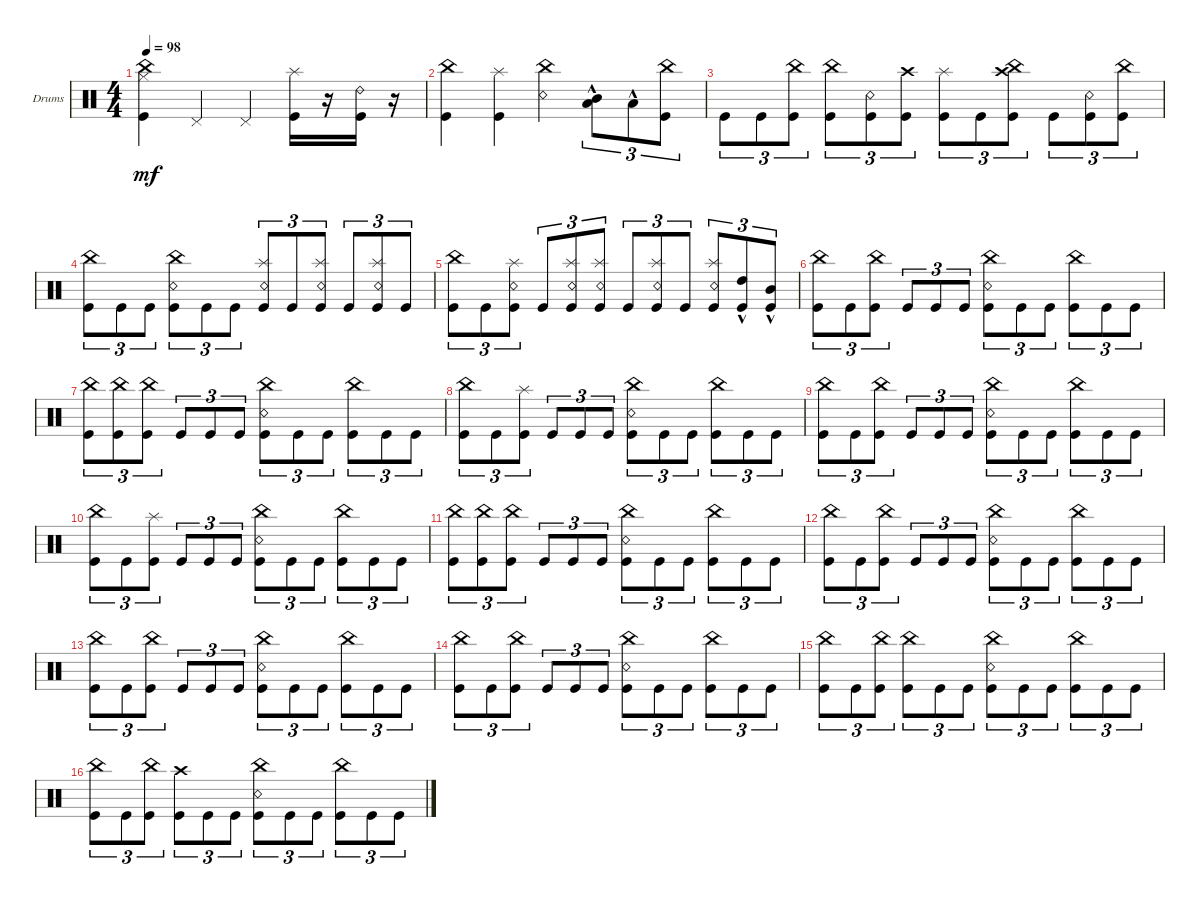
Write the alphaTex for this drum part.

\defaultSystemsLayout 4
\bracketExtendMode groupsimilarinstruments
\firstSystemTrackNameOrientation horizontal
\otherSystemsTrackNameOrientation horizontal
\track ("Drumkit" "Drums") {instrument percussion}
\staff {score}
\articulation defaults
\ts (4 4)
\tempo 98
\clef neutral
\scale
0.333333
\ks c
("China (hit)" "Kick (hit)" "Hi-Hat (closed)").4{dy mf} "Pedal Hi-Hat (hit)".4 "Pedal Hi-Hat (hit)".4 ("Splash (hit)" "Kick (hit)").16 r.16 ("Kick (hit)" "Ride (bell) 2").16 r.16 |
\scale
0.333333 ("Kick (hit)" "China (hit)").4 ("Kick (hit)" "Splash (hit)").4 ("Snare (rim shot)" "China (hit)").4 ("Mid Tom (hit)" "Low Tom (hit)"{hac}).8{tu (3 2)} "Low Tom (hit)"{hac}.8{tu (3 2)} ("Kick (hit)" "China (hit)").8{tu (3 2)} |
\scale
0.333333 "Kick (hit)".8{tu (3 2)} "Kick (hit)".8{tu (3 2)} ("Kick (hit)" "China (hit)").8{tu (3 2)} ("Kick (hit)" "China (hit)").8{tu (3 2)} ("Kick (hit)" "Snare (rim shot)").8{tu (3 2)} ("Kick (hit)" "Crash high (hit)").8{tu (3 2)} ("Kick (hit)" "Splash (hit)").8{tu (3 2)} "Kick (hit)".8{tu (3 2)} ("Kick (hit)" "China (hit)" "Crash high (hit)").8{tu (3 2)} "Kick (hit)".8{tu (3 2)} ("Kick (hit)" "Snare (rim shot)").8{tu (3 2)} ("Kick (hit)" "China (hit)").8{tu (3 2)} |
\scale
0.333333 ("Kick (hit)" "China (hit)").8{tu (3 2)} "Kick (hit)".8{tu (3 2)} "Kick (hit)".8{tu (3 2)} ("Kick (hit)" "China (hit)" "Snare (rim shot)").8{tu (3 2)} "Kick (hit)".8{tu (3 2)} "Kick (hit)".8{tu (3 2)} ("Kick (hit)" "Snare (rim shot)" "Splash (hit)").8{tu (3 2)} "Kick (hit)".8{tu (3 2)} ("Kick (hit)" "Snare (rim shot)" "Splash (hit)").8{tu (3 2)} "Kick (hit)".8{tu (3 2)} ("Kick (hit)" "Snare (rim shot)" "Splash (hit)").8{tu (3 2)} "Kick (hit)".8{tu (3 2)} |
\scale
0.333333 ("Kick (hit)" "China (hit)").8{tu (3 2)} "Kick (hit)".8{tu (3 2)} ("Kick (hit)" "Snare (rim shot)" "Splash (hit)").8{tu (3 2)} "Kick (hit)".8{tu (3 2)} ("Kick (hit)" "Snare (rim shot)" "Splash (hit)").8{tu (3 2)} ("Kick (hit)" "Snare (rim shot)" "Splash (hit)").8{tu (3 2)} "Kick (hit)".8{tu (3 2)} ("Kick (hit)" "Snare (rim shot)" "Splash (hit)").8{tu (3 2)} "Kick (hit)".8{tu (3 2)} ("Kick (hit)" "Snare (rim shot)" "Splash (hit)").8{tu (3 2)} ("Kick (hit)"{hac} "High Tom (hit)"{hac}).8{tu (3 2)} ("Kick (hit)"{hac} "Mid Tom (hit)"{hac}).8{tu (3 2)} |
\scale
0.333333 ("Kick (hit)" "China (hit)").8{tu (3 2)} "Kick (hit)".8{tu (3 2)} ("Kick (hit)" "China (hit)").8{tu (3 2)} "Kick (hit)".8{tu (3 2)} "Kick (hit)".8{tu (3 2)} "Kick (hit)".8{tu (3 2)} ("Snare (rim shot)" "Kick (hit)" "China (hit)").8{tu (3 2)} "Kick (hit)".8{tu (3 2)} "Kick (hit)".8{tu (3 2)} ("Kick (hit)" "China (hit)").8{tu (3 2)} "Kick (hit)".8{tu (3 2)} "Kick (hit)".8{tu (3 2)} |
\scale
0.333333 ("Kick (hit)" "China (hit)").8{tu (3 2)} ("Kick (hit)" "China (hit)").8{tu (3 2)} ("Kick (hit)" "China (hit)").8{tu (3 2)} "Kick (hit)".8{tu (3 2)} "Kick (hit)".8{tu (3 2)} "Kick (hit)".8{tu (3 2)} ("Snare (rim shot)" "Kick (hit)" "China (hit)").8{tu (3 2)} "Kick (hit)".8{tu (3 2)} "Kick (hit)".8{tu (3 2)} ("Kick (hit)" "China (hit)").8{tu (3 2)} "Kick (hit)".8{tu (3 2)} "Kick (hit)".8{tu (3 2)} |
\scale
0.333333 ("Kick (hit)" "China (hit)").8{tu (3 2)} "Kick (hit)".8{tu (3 2)} ("Kick (hit)" "Splash (hit)").8{tu (3 2)} "Kick (hit)".8{tu (3 2)} "Kick (hit)".8{tu (3 2)} "Kick (hit)".8{tu (3 2)} ("Snare (rim shot)" "Kick (hit)" "China (hit)").8{tu (3 2)} "Kick (hit)".8{tu (3 2)} "Kick (hit)".8{tu (3 2)} ("Kick (hit)" "China (hit)").8{tu (3 2)} "Kick (hit)".8{tu (3 2)} "Kick (hit)".8{tu (3 2)} |
\scale
0.333333 ("Kick (hit)" "China (hit)").8{tu (3 2)} "Kick (hit)".8{tu (3 2)} ("Kick (hit)" "China (hit)").8{tu (3 2)} "Kick (hit)".8{tu (3 2)} "Kick (hit)".8{tu (3 2)} "Kick (hit)".8{tu (3 2)} ("Snare (rim shot)" "Kick (hit)" "China (hit)").8{tu (3 2)} "Kick (hit)".8{tu (3 2)} "Kick (hit)".8{tu (3 2)} ("Kick (hit)" "China (hit)").8{tu (3 2)} "Kick (hit)".8{tu (3 2)} "Kick (hit)".8{tu (3 2)} |
\scale
0.333333 ("Kick (hit)" "China (hit)").8{tu (3 2)} "Kick (hit)".8{tu (3 2)} ("Kick (hit)" "Splash (hit)").8{tu (3 2)} "Kick (hit)".8{tu (3 2)} "Kick (hit)".8{tu (3 2)} "Kick (hit)".8{tu (3 2)} ("Snare (rim shot)" "Kick (hit)" "China (hit)").8{tu (3 2)} "Kick (hit)".8{tu (3 2)} "Kick (hit)".8{tu (3 2)} ("Kick (hit)" "China (hit)").8{tu (3 2)} "Kick (hit)".8{tu (3 2)} "Kick (hit)".8{tu (3 2)} |
\scale
0.333333 ("Kick (hit)" "China (hit)").8{tu (3 2)} ("Kick (hit)" "China (hit)").8{tu (3 2)} ("Kick (hit)" "China (hit)").8{tu (3 2)} "Kick (hit)".8{tu (3 2)} "Kick (hit)".8{tu (3 2)} "Kick (hit)".8{tu (3 2)} ("Snare (rim shot)" "Kick (hit)" "China (hit)").8{tu (3 2)} "Kick (hit)".8{tu (3 2)} "Kick (hit)".8{tu (3 2)} ("Kick (hit)" "China (hit)").8{tu (3 2)} "Kick (hit)".8{tu (3 2)} "Kick (hit)".8{tu (3 2)} |
\scale
0.333333 ("Kick (hit)" "China (hit)").8{tu (3 2)} "Kick (hit)".8{tu (3 2)} ("Kick (hit)" "China (hit)").8{tu (3 2)} "Kick (hit)".8{tu (3 2)} "Kick (hit)".8{tu (3 2)} "Kick (hit)".8{tu (3 2)} ("Snare (rim shot)" "Kick (hit)" "China (hit)").8{tu (3 2)} "Kick (hit)".8{tu (3 2)} "Kick (hit)".8{tu (3 2)} ("Kick (hit)" "China (hit)").8{tu (3 2)} "Kick (hit)".8{tu (3 2)} "Kick (hit)".8{tu (3 2)} |
\scale
0.333333 ("Kick (hit)" "China (hit)").8{tu (3 2)} "Kick (hit)".8{tu (3 2)} ("Kick (hit)" "China (hit)").8{tu (3 2)} "Kick (hit)".8{tu (3 2)} "Kick (hit)".8{tu (3 2)} "Kick (hit)".8{tu (3 2)} ("Snare (rim shot)" "Kick (hit)" "China (hit)").8{tu (3 2)} "Kick (hit)".8{tu (3 2)} "Kick (hit)".8{tu (3 2)} ("Kick (hit)" "China (hit)").8{tu (3 2)} "Kick (hit)".8{tu (3 2)} "Kick (hit)".8{tu (3 2)} |
\scale
0.333333 ("Kick (hit)" "China (hit)").8{tu (3 2)} "Kick (hit)".8{tu (3 2)} ("Kick (hit)" "China (hit)").8{tu (3 2)} "Kick (hit)".8{tu (3 2)} "Kick (hit)".8{tu (3 2)} "Kick (hit)".8{tu (3 2)} ("Snare (rim shot)" "Kick (hit)" "China (hit)").8{tu (3 2)} "Kick (hit)".8{tu (3 2)} "Kick (hit)".8{tu (3 2)} ("Kick (hit)" "China (hit)").8{tu (3 2)} "Kick (hit)".8{tu (3 2)} "Kick (hit)".8{tu (3 2)} |
\scale
0.333333 ("Kick (hit)" "China (hit)").8{tu (3 2)} "Kick (hit)".8{tu (3 2)} ("Kick (hit)" "China (hit)").8{tu (3 2)} ("Kick (hit)" "China (hit)").8{tu (3 2)} "Kick (hit)".8{tu (3 2)} "Kick (hit)".8{tu (3 2)} ("Snare (rim shot)" "Kick (hit)" "China (hit)").8{tu (3 2)} "Kick (hit)".8{tu (3 2)} "Kick (hit)".8{tu (3 2)} ("Kick (hit)" "China (hit)").8{tu (3 2)} "Kick (hit)".8{tu (3 2)} "Kick (hit)".8{tu (3 2)} |
\scale
0.333333 ("Kick (hit)" "China (hit)").8{tu (3 2)} "Kick (hit)".8{tu (3 2)} ("Kick (hit)" "China (hit)").8{tu (3 2)} ("Kick (hit)" "Crash high (hit)").8{tu (3 2)} "Kick (hit)".8{tu (3 2)} "Kick (hit)".8{tu (3 2)} ("Snare (rim shot)" "Kick (hit)" "China (hit)").8{tu (3 2)} "Kick (hit)".8{tu (3 2)} "Kick (hit)".8{tu (3 2)} ("Kick (hit)" "China (hit)").8{tu (3 2)} "Kick (hit)".8{tu (3 2)} "Kick (hit)".8{tu (3 2)}
